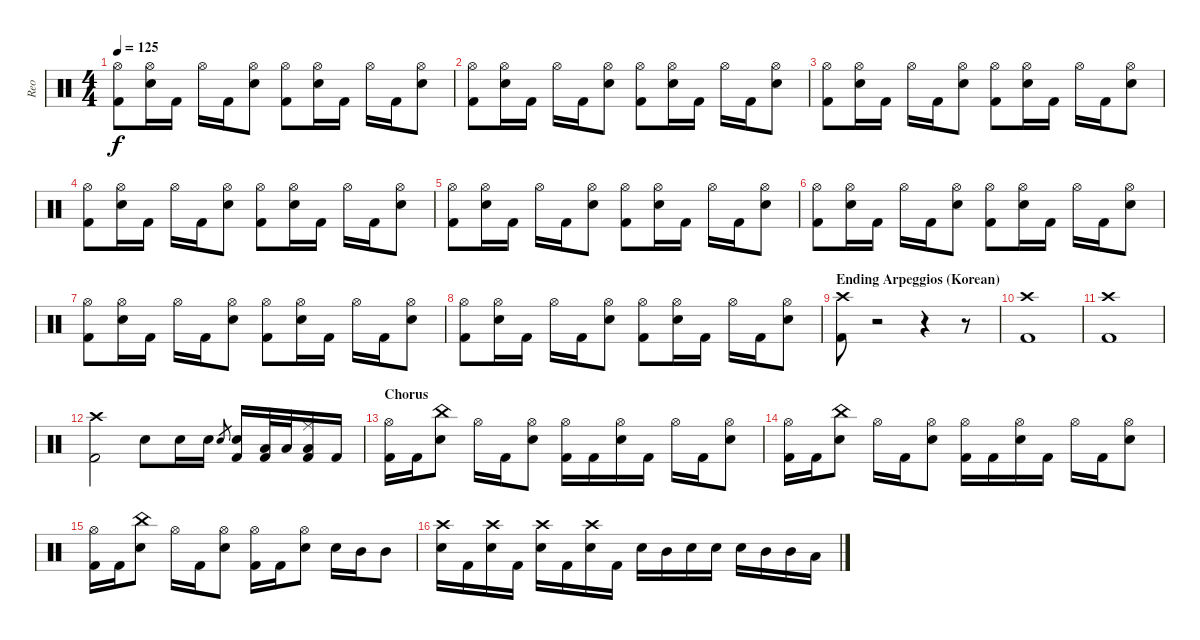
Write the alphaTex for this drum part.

\track ("Reo" "Reo") {instrument percussion}
\staff {score}
\articulation defaults
\ts (4 4)
\tempo 125
\clef neutral
\ks c
("Hi-Hat (open)" "Kick (hit) 2").8{dy f} ("Hi-Hat (open)" "Electric Snare (hit)").16 "Kick (hit) 2".16 "Hi-Hat (open)".16 "Kick (hit) 2".16 ("Hi-Hat (open)" "Electric Snare (hit)").8 ("Hi-Hat (open)" "Kick (hit) 2").8 ("Hi-Hat (open)" "Electric Snare (hit)").16 "Kick (hit) 2".16 "Hi-Hat (open)".16 "Kick (hit) 2".16 ("Hi-Hat (open)" "Electric Snare (hit)").8 |
("Hi-Hat (open)" "Kick (hit) 2").8 ("Hi-Hat (open)" "Electric Snare (hit)").16 "Kick (hit) 2".16 "Hi-Hat (open)".16 "Kick (hit) 2".16 ("Hi-Hat (open)" "Electric Snare (hit)").8 ("Hi-Hat (open)" "Kick (hit) 2").8 ("Hi-Hat (open)" "Electric Snare (hit)").16 "Kick (hit) 2".16 "Hi-Hat (open)".16 "Kick (hit) 2".16 ("Hi-Hat (open)" "Electric Snare (hit)").8 |
("Hi-Hat (open)" "Kick (hit) 2").8 ("Hi-Hat (open)" "Electric Snare (hit)").16 "Kick (hit) 2".16 "Hi-Hat (open)".16 "Kick (hit) 2".16 ("Hi-Hat (open)" "Electric Snare (hit)").8 ("Hi-Hat (open)" "Kick (hit) 2").8 ("Hi-Hat (open)" "Electric Snare (hit)").16 "Kick (hit) 2".16 "Hi-Hat (open)".16 "Kick (hit) 2".16 ("Hi-Hat (open)" "Electric Snare (hit)").8 |
("Hi-Hat (open)" "Kick (hit) 2").8 ("Hi-Hat (open)" "Electric Snare (hit)").16 "Kick (hit) 2".16 "Hi-Hat (open)".16 "Kick (hit) 2".16 ("Hi-Hat (open)" "Electric Snare (hit)").8 ("Hi-Hat (open)" "Kick (hit) 2").8 ("Hi-Hat (open)" "Electric Snare (hit)").16 "Kick (hit) 2".16 "Hi-Hat (open)".16 "Kick (hit) 2".16 ("Hi-Hat (open)" "Electric Snare (hit)").8 |
("Hi-Hat (open)" "Kick (hit) 2").8 ("Hi-Hat (open)" "Electric Snare (hit)").16 "Kick (hit) 2".16 "Hi-Hat (open)".16 "Kick (hit) 2".16 ("Hi-Hat (open)" "Electric Snare (hit)").8 ("Hi-Hat (open)" "Kick (hit) 2").8 ("Hi-Hat (open)" "Electric Snare (hit)").16 "Kick (hit) 2".16 "Hi-Hat (open)".16 "Kick (hit) 2".16 ("Hi-Hat (open)" "Electric Snare (hit)").8 |
("Hi-Hat (open)" "Kick (hit) 2").8 ("Hi-Hat (open)" "Electric Snare (hit)").16 "Kick (hit) 2".16 "Hi-Hat (open)".16 "Kick (hit) 2".16 ("Hi-Hat (open)" "Electric Snare (hit)").8 ("Hi-Hat (open)" "Kick (hit) 2").8 ("Hi-Hat (open)" "Electric Snare (hit)").16 "Kick (hit) 2".16 "Hi-Hat (open)".16 "Kick (hit) 2".16 ("Hi-Hat (open)" "Electric Snare (hit)").8 |
("Hi-Hat (open)" "Kick (hit) 2").8 ("Hi-Hat (open)" "Electric Snare (hit)").16 "Kick (hit) 2".16 "Hi-Hat (open)".16 "Kick (hit) 2".16 ("Hi-Hat (open)" "Electric Snare (hit)").8 ("Hi-Hat (open)" "Kick (hit) 2").8 ("Hi-Hat (open)" "Electric Snare (hit)").16 "Kick (hit) 2".16 "Hi-Hat (open)".16 "Kick (hit) 2".16 ("Hi-Hat (open)" "Electric Snare (hit)").8 |
("Hi-Hat (open)" "Kick (hit) 2").8 ("Hi-Hat (open)" "Electric Snare (hit)").16 "Kick (hit) 2".16 "Hi-Hat (open)".16 "Kick (hit) 2".16 ("Hi-Hat (open)" "Electric Snare (hit)").8 ("Hi-Hat (open)" "Kick (hit) 2").8 ("Hi-Hat (open)" "Electric Snare (hit)").16 "Kick (hit) 2".16 "Hi-Hat (open)".16 "Kick (hit) 2".16 ("Hi-Hat (open)" "Electric Snare (hit)").8 |
\section ("" "Ending Arpeggios (Korean)")
("Crash high (hit)" "Kick (hit) 2").8 r.2 r.4 r.8 |
("Crash high (hit)" "Kick (hit) 2").1 |
("Crash high (hit)" "Kick (hit) 2").1 |
("Crash high (hit)" "Kick (hit) 2").2 "Snare (hit) 2".8 "Snare (hit) 2".16 "Snare (hit) 2".16 "Snare (hit) 2".8{gr} ("Snare (hit) 2" "Kick (hit) 2").16 ("Low Tom (hit)" "Kick (hit) 2").32 "Low Tom (hit)".32 ("Ride (middle)" "Low Floor Tom (hit)" "Kick (hit) 2").16 "Kick (hit) 2".16 |
\section ("" "Chorus")
("Hi-Hat (open)" "Kick (hit) 2").16 "Kick (hit) 2".16 ("China (hit)" "Electric Snare (hit)").8 "Hi-Hat (open)".16 "Kick (hit) 2".16 ("Hi-Hat (open)" "Electric Snare (hit)").8 ("Hi-Hat (open)" "Kick (hit) 2").16 "Kick (hit) 2".16 ("Hi-Hat (open)" "Electric Snare (hit)").16 "Kick (hit) 2".16 "Hi-Hat (open)".16 "Kick (hit) 2".16 ("Hi-Hat (open)" "Electric Snare (hit)").8 |
("Hi-Hat (open)" "Kick (hit) 2").16 "Kick (hit) 2".16 ("China (hit)" "Electric Snare (hit)").8 "Hi-Hat (open)".16 "Kick (hit) 2".16 ("Hi-Hat (open)" "Electric Snare (hit)").8 ("Hi-Hat (open)" "Kick (hit) 2").16 "Kick (hit) 2".16 ("Hi-Hat (open)" "Electric Snare (hit)").16 "Kick (hit) 2".16 "Hi-Hat (open)".16 "Kick (hit) 2".16 ("Hi-Hat (open)" "Electric Snare (hit)").8 |
("Hi-Hat (open)" "Kick (hit) 2").16 "Kick (hit) 2".16 ("China (hit)" "Electric Snare (hit)").8 "Hi-Hat (open)".16 "Kick (hit) 2".16 ("Hi-Hat (open)" "Electric Snare (hit)").8 ("Hi-Hat (open)" "Kick (hit) 2").16 "Kick (hit) 2".16 ("Hi-Hat (open)" "Electric Snare (hit)").8 "Electric Snare (hit)".16 "Mid Tom (hit)".16 "Mid Tom (hit)".8 |
("Crash high (hit)" "Electric Snare (hit)").16 "Kick (hit) 2".16 ("Crash high (hit)" "Electric Snare (hit)").16 "Kick (hit) 2".16 ("Crash high (hit)" "Electric Snare (hit)").16 "Kick (hit) 2".16 ("Crash high (hit)" "Electric Snare (hit)").16 "Kick (hit) 2".16 "Electric Snare (hit)".16 "Mid Tom (hit)".16 "Electric Snare (hit)".16 "Electric Snare (hit)".16 "Electric Snare (hit)".16 "Mid Tom (hit)".16 "Mid Tom (hit)".16 "Low Tom (hit)".16
